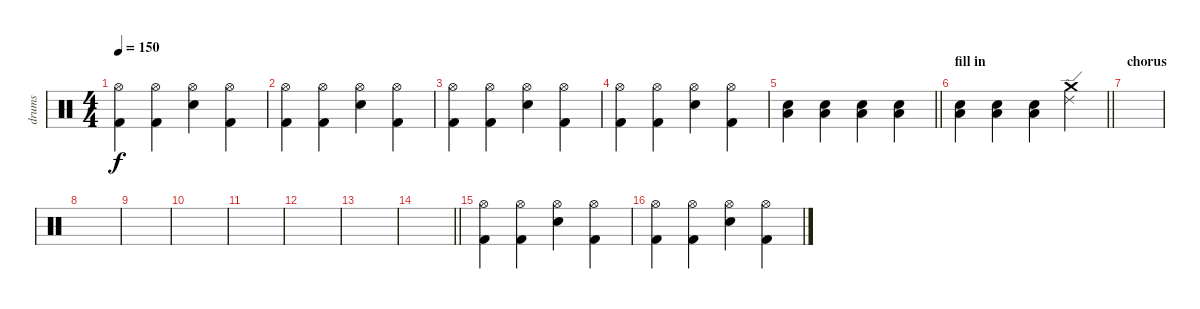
\track ("drums" "drums") {instrument percussion}
\staff {score}
\articulation defaults
\ts (4 4)
\tempo 150
\clef neutral
\ks c
("Hi-Hat (open)" "Kick (hit) 2").4{dy f} ("Hi-Hat (open)" "Kick (hit) 2").4 ("Hi-Hat (open)" "Electric Snare (hit)").4 ("Hi-Hat (open)" "Kick (hit) 2").4 |
("Hi-Hat (open)" "Kick (hit) 2").4 ("Hi-Hat (open)" "Kick (hit) 2").4 ("Hi-Hat (open)" "Electric Snare (hit)").4 ("Hi-Hat (open)" "Kick (hit) 2").4 |
("Hi-Hat (open)" "Kick (hit) 2").4 ("Hi-Hat (open)" "Kick (hit) 2").4 ("Hi-Hat (open)" "Electric Snare (hit)").4 ("Hi-Hat (open)" "Kick (hit) 2").4 |
("Hi-Hat (open)" "Kick (hit) 2").4 ("Hi-Hat (open)" "Kick (hit) 2").4 ("Hi-Hat (open)" "Electric Snare (hit)").4 ("Hi-Hat (open)" "Kick (hit) 2").4 |
\barLineRight lightlight
("Electric Snare (hit)" "Low Tom (hit)").4 ("Electric Snare (hit)" "Low Tom (hit)").4 ("Electric Snare (hit)" "Low Tom (hit)").4 ("Electric Snare (hit)" "Low Tom (hit)").4 |
\section ("" "fill in")
\barLineRight lightlight
("Electric Snare (hit)" "Low Tom (hit)").4 ("Electric Snare (hit)" "Low Tom (hit)").4 ("Electric Snare (hit)" "Low Tom (hit)").4 ("Crash medium (hit)" "Ride (edge) 2").4 |
\section ("" "chorus")
|
|
|
|
|
|
|
\barLineRight lightlight
|
("Hi-Hat (open)" "Kick (hit) 2").4 ("Hi-Hat (open)" "Kick (hit) 2").4 ("Hi-Hat (open)" "Electric Snare (hit)").4 ("Hi-Hat (open)" "Kick (hit) 2").4 |
("Hi-Hat (open)" "Kick (hit) 2").4 ("Hi-Hat (open)" "Kick (hit) 2").4 ("Hi-Hat (open)" "Electric Snare (hit)").4 ("Hi-Hat (open)" "Kick (hit) 2").4
